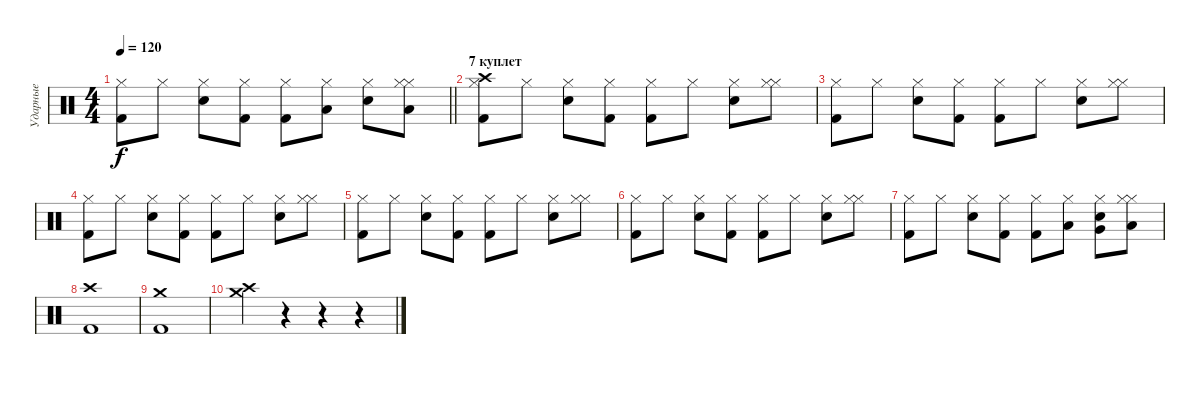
\track ("Ударные" "Ударные") {instrument percussion}
\staff {score}
\articulation defaults
\ts (4 4)
\tempo 120
\clef neutral
\barLineRight lightlight
\ks c
("Kick (hit) 2" "Hi-Hat (closed)").8{dy f} "Hi-Hat (closed)".8 ("Electric Snare (hit)" "Hi-Hat (closed)").8 ("Kick (hit) 2" "Hi-Hat (closed)").8 ("Kick (hit) 2" "Hi-Hat (closed)").8 ("Hi-Hat (closed)" "Low Tom (hit)").8 ("Electric Snare (hit)" "Hi-Hat (closed)").8 ("Hi-Hat (closed)" "Hi-Hat (closed)" "Low Floor Tom (hit)").8 |
\section ("" "7 куплет")
("Kick (hit) 2" "Hi-Hat (closed)" "Crash high (hit)").8 "Hi-Hat (closed)".8 ("Electric Snare (hit)" "Hi-Hat (closed)").8 ("Kick (hit) 2" "Hi-Hat (closed)").8 ("Kick (hit) 2" "Hi-Hat (closed)").8 "Hi-Hat (closed)".8 ("Electric Snare (hit)" "Hi-Hat (closed)").8 ("Hi-Hat (closed)" "Hi-Hat (closed)").8 |
("Kick (hit) 2" "Hi-Hat (closed)").8 "Hi-Hat (closed)".8 ("Electric Snare (hit)" "Hi-Hat (closed)").8 ("Kick (hit) 2" "Hi-Hat (closed)").8 ("Kick (hit) 2" "Hi-Hat (closed)").8 "Hi-Hat (closed)".8 ("Electric Snare (hit)" "Hi-Hat (closed)").8 ("Hi-Hat (closed)" "Hi-Hat (closed)").8 |
("Kick (hit) 2" "Hi-Hat (closed)").8 "Hi-Hat (closed)".8 ("Electric Snare (hit)" "Hi-Hat (closed)").8 ("Kick (hit) 2" "Hi-Hat (closed)").8 ("Kick (hit) 2" "Hi-Hat (closed)").8 "Hi-Hat (closed)".8 ("Electric Snare (hit)" "Hi-Hat (closed)").8 ("Hi-Hat (closed)" "Hi-Hat (closed)").8 |
("Kick (hit) 2" "Hi-Hat (closed)").8 "Hi-Hat (closed)".8 ("Electric Snare (hit)" "Hi-Hat (closed)").8 ("Kick (hit) 2" "Hi-Hat (closed)").8 ("Kick (hit) 2" "Hi-Hat (closed)").8 "Hi-Hat (closed)".8 ("Electric Snare (hit)" "Hi-Hat (closed)").8 ("Hi-Hat (closed)" "Hi-Hat (closed)").8 |
("Kick (hit) 2" "Hi-Hat (closed)").8 "Hi-Hat (closed)".8 ("Electric Snare (hit)" "Hi-Hat (closed)").8 ("Kick (hit) 2" "Hi-Hat (closed)").8 ("Kick (hit) 2" "Hi-Hat (closed)").8 "Hi-Hat (closed)".8 ("Electric Snare (hit)" "Hi-Hat (closed)").8 ("Hi-Hat (closed)" "Hi-Hat (closed)").8 |
("Kick (hit) 2" "Hi-Hat (closed)").8 "Hi-Hat (closed)".8 ("Electric Snare (hit)" "Hi-Hat (closed)").8 ("Kick (hit) 2" "Hi-Hat (closed)").8 ("Kick (hit) 2" "Hi-Hat (closed)").8 ("Low Tom (hit)" "Hi-Hat (closed)").8 ("Electric Snare (hit)" "Hi-Hat (closed)" "Very Low Tom (hit)").8 ("Hi-Hat (closed)" "Hi-Hat (closed)" "Low Floor Tom (hit)").8 |
("Kick (hit) 2" "Crash high (hit)").1 |
("Kick (hit) 2" "Crash medium (hit)").1 |
("Crash high (hit)" "Crash medium (hit)").4 r.4 r.4 r.4
